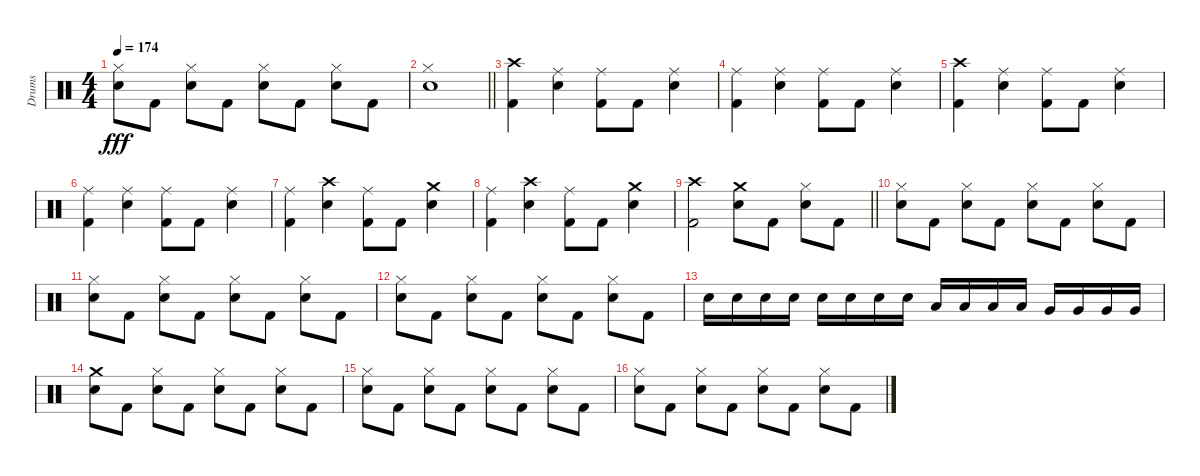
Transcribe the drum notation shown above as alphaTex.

\track ("Drums" "Drums") {instrument percussion}
\staff {score}
\articulation defaults
\ts (4 4)
\tempo 174
\clef neutral
\ks c
("Hi-Hat (closed)" "Electric Snare (hit)").8{dy fff} "Kick (hit) 2".8 ("Hi-Hat (closed)" "Electric Snare (hit)").8 "Kick (hit) 2".8 ("Hi-Hat (closed)" "Electric Snare (hit)").8 "Kick (hit) 2".8 ("Hi-Hat (closed)" "Electric Snare (hit)").8 "Kick (hit) 2".8 |
\barLineRight lightlight
("Hi-Hat (closed)" "Electric Snare (hit)").1 |
("Crash high (hit)" "Kick (hit) 2").4 ("Ride (middle)" "Electric Snare (hit)").4 ("Ride (middle)" "Kick (hit) 2").8 "Kick (hit) 2".8 ("Ride (middle)" "Electric Snare (hit)").4 |
("Ride (middle)" "Kick (hit) 2").4 ("Ride (middle)" "Electric Snare (hit)").4 ("Ride (middle)" "Kick (hit) 2").8 "Kick (hit) 2".8 ("Ride (middle)" "Electric Snare (hit)").4 |
("Crash high (hit)" "Kick (hit) 2").4 ("Ride (middle)" "Electric Snare (hit)").4 ("Ride (middle)" "Kick (hit) 2").8 "Kick (hit) 2".8 ("Ride (middle)" "Electric Snare (hit)").4 |
("Ride (middle)" "Kick (hit) 2").4 ("Ride (middle)" "Electric Snare (hit)").4 ("Ride (middle)" "Kick (hit) 2").8 "Kick (hit) 2".8 ("Ride (middle)" "Electric Snare (hit)").4 |
("Ride (middle)" "Kick (hit) 2").4 ("Crash high (hit)" "Electric Snare (hit)").4 ("Ride (middle)" "Kick (hit) 2").8 "Kick (hit) 2".8 ("Crash medium (hit)" "Electric Snare (hit)").4 |
("Ride (middle)" "Kick (hit) 2").4 ("Crash high (hit)" "Electric Snare (hit)").4 ("Ride (middle)" "Kick (hit) 2").8 "Kick (hit) 2".8 ("Crash medium (hit)" "Electric Snare (hit)").4 |
\barLineRight lightlight
("Crash high (hit)" "Kick (hit) 2").2 ("Crash medium (hit)" "Electric Snare (hit)").8 "Kick (hit) 2".8 ("Hi-Hat (closed)" "Electric Snare (hit)").8 "Kick (hit) 2".8 |
("Hi-Hat (closed)" "Electric Snare (hit)").8 "Kick (hit) 2".8 ("Hi-Hat (closed)" "Electric Snare (hit)").8 "Kick (hit) 2".8 ("Hi-Hat (closed)" "Electric Snare (hit)").8 "Kick (hit) 2".8 ("Hi-Hat (closed)" "Electric Snare (hit)").8 "Kick (hit) 2".8 |
("Hi-Hat (closed)" "Electric Snare (hit)").8 "Kick (hit) 2".8 ("Hi-Hat (closed)" "Electric Snare (hit)").8 "Kick (hit) 2".8 ("Hi-Hat (closed)" "Electric Snare (hit)").8 "Kick (hit) 2".8 ("Hi-Hat (closed)" "Electric Snare (hit)").8 "Kick (hit) 2".8 |
("Hi-Hat (closed)" "Electric Snare (hit)").8 "Kick (hit) 2".8 ("Hi-Hat (closed)" "Electric Snare (hit)").8 "Kick (hit) 2".8 ("Hi-Hat (closed)" "Electric Snare (hit)").8 "Kick (hit) 2".8 ("Hi-Hat (closed)" "Electric Snare (hit)").8 "Kick (hit) 2".8 |
"Electric Snare (hit)".16 "Electric Snare (hit)".16 "Electric Snare (hit)".16 "Electric Snare (hit)".16 "Electric Snare (hit)".16 "Electric Snare (hit)".16 "Electric Snare (hit)".16 "Electric Snare (hit)".16 "Low Tom (hit)".16 "Low Tom (hit)".16 "Low Tom (hit)".16 "Low Tom (hit)".16 "Very Low Tom (hit)".16 "Very Low Tom (hit)".16 "Very Low Tom (hit)".16 "Very Low Tom (hit)".16 |
("Crash medium (hit)" "Electric Snare (hit)").8 "Kick (hit) 2".8 ("Hi-Hat (closed)" "Electric Snare (hit)").8 "Kick (hit) 2".8 ("Hi-Hat (closed)" "Electric Snare (hit)").8 "Kick (hit) 2".8 ("Hi-Hat (closed)" "Electric Snare (hit)").8 "Kick (hit) 2".8 |
("Hi-Hat (closed)" "Electric Snare (hit)").8 "Kick (hit) 2".8 ("Hi-Hat (closed)" "Electric Snare (hit)").8 "Kick (hit) 2".8 ("Hi-Hat (closed)" "Electric Snare (hit)").8 "Kick (hit) 2".8 ("Hi-Hat (closed)" "Electric Snare (hit)").8 "Kick (hit) 2".8 |
("Hi-Hat (closed)" "Electric Snare (hit)").8 "Kick (hit) 2".8 ("Hi-Hat (closed)" "Electric Snare (hit)").8 "Kick (hit) 2".8 ("Hi-Hat (closed)" "Electric Snare (hit)").8 "Kick (hit) 2".8 ("Hi-Hat (closed)" "Electric Snare (hit)").8 "Kick (hit) 2".8
